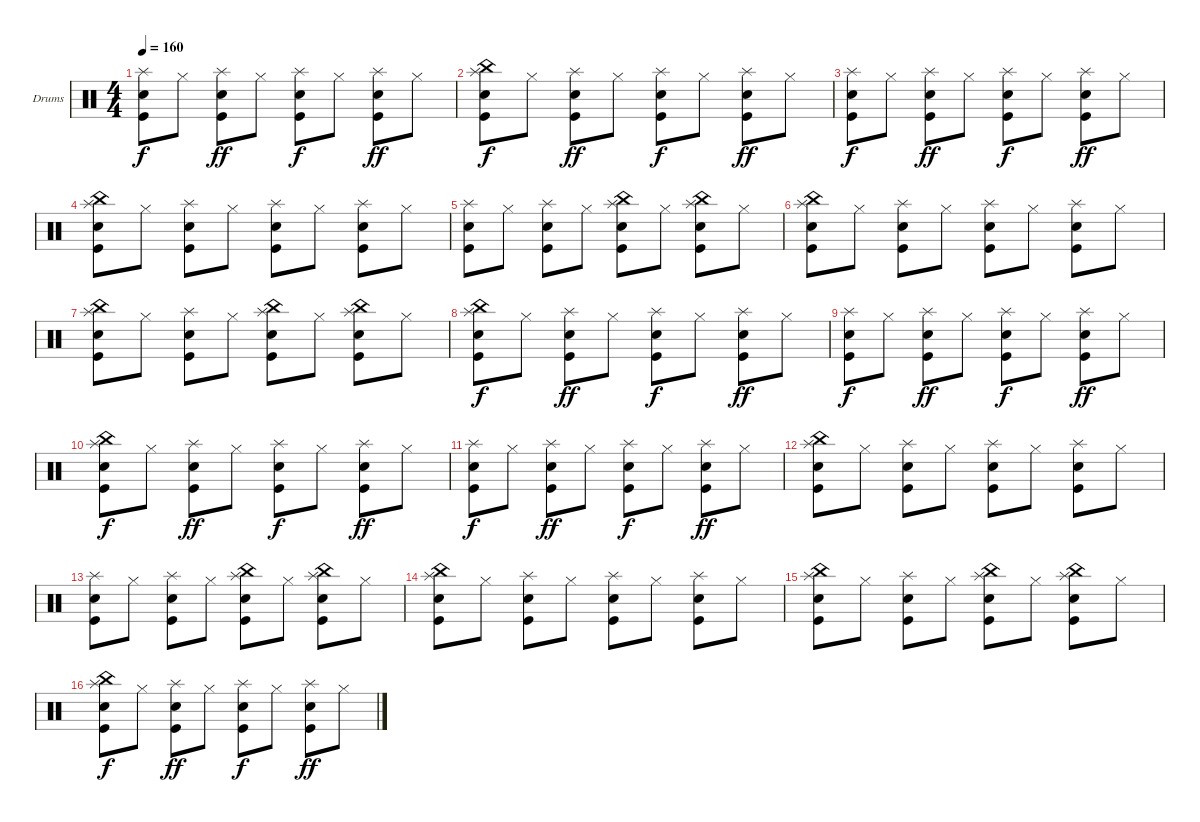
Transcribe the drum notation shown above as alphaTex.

\bracketExtendMode groupsimilarinstruments
\firstSystemTrackNameOrientation horizontal
\otherSystemsTrackNameOrientation horizontal
\track ("Drumkit" "Drums") {instrument percussion}
\staff {score}
\articulation defaults
\ts (4 4)
\tempo 160
\clef neutral
\ks c
("Kick (hit)" "Snare (hit) 2" "Splash (hit)").8{dy f} "Hi-Hat (closed)".8 ("Kick (hit)" "Snare (hit) 2" "Splash (hit)").8{dy ff} "Hi-Hat (closed)".8 ("Kick (hit)" "Snare (hit) 2" "Splash (hit)").8{dy f} "Hi-Hat (closed)".8 ("Kick (hit)" "Snare (hit) 2" "Splash (hit)").8{dy ff} "Hi-Hat (closed)".8 |
("Kick (hit)" "Snare (hit) 2" "Splash (hit)" "China (hit)").8{dy f} "Hi-Hat (closed)".8 ("Kick (hit)" "Snare (hit) 2" "Splash (hit)").8{dy ff} "Hi-Hat (closed)".8 ("Kick (hit)" "Snare (hit) 2" "Splash (hit)").8{dy f} "Hi-Hat (closed)".8 ("Kick (hit)" "Snare (hit) 2" "Splash (hit)").8{dy ff} "Hi-Hat (closed)".8 |
("Kick (hit)" "Snare (hit) 2" "Splash (hit)").8{dy f} "Hi-Hat (closed)".8 ("Kick (hit)" "Snare (hit) 2" "Splash (hit)").8{dy ff} "Hi-Hat (closed)".8 ("Kick (hit)" "Snare (hit) 2" "Splash (hit)").8{dy f} "Hi-Hat (closed)".8 ("Kick (hit)" "Snare (hit) 2" "Splash (hit)").8{dy ff} "Hi-Hat (closed)".8 |
("Kick (hit)" "Snare (hit) 2" "China (hit)" "Splash (hit)").8 "Hi-Hat (closed)".8 ("Kick (hit)" "Snare (hit) 2" "Splash (hit)").8 "Hi-Hat (closed)".8 ("Kick (hit)" "Snare (hit) 2" "Splash (hit)").8 "Hi-Hat (closed)".8 ("Kick (hit)" "Snare (hit) 2" "Splash (hit)").8 "Hi-Hat (closed)".8 |
("Kick (hit)" "Snare (hit) 2" "Splash (hit)").8 "Hi-Hat (closed)".8 ("Kick (hit)" "Snare (hit) 2" "Splash (hit)").8 "Hi-Hat (closed)".8 ("Kick (hit)" "Snare (hit) 2" "Splash (hit)" "China (hit)").8 "Hi-Hat (closed)".8 ("Kick (hit)" "Snare (hit) 2" "Splash (hit)" "China (hit)").8 "Hi-Hat (closed)".8 |
("Kick (hit)" "Snare (hit) 2" "Splash (hit)" "China (hit)").8 "Hi-Hat (closed)".8 ("Kick (hit)" "Snare (hit) 2" "Splash (hit)").8 "Hi-Hat (closed)".8 ("Kick (hit)" "Snare (hit) 2" "Splash (hit)").8 "Hi-Hat (closed)".8 ("Kick (hit)" "Snare (hit) 2" "Splash (hit)").8 "Hi-Hat (closed)".8 |
("Kick (hit)" "Snare (hit) 2" "Splash (hit)" "China (hit)").8 "Hi-Hat (closed)".8 ("Kick (hit)" "Snare (hit) 2" "Splash (hit)").8 "Hi-Hat (closed)".8 ("Kick (hit)" "Snare (hit) 2" "Splash (hit)" "China (hit)").8 "Hi-Hat (closed)".8 ("Kick (hit)" "Snare (hit) 2" "Splash (hit)" "China (hit)").8 "Hi-Hat (closed)".8 |
("Kick (hit)" "Snare (hit) 2" "Splash (hit)" "China (hit)").8{dy f} "Hi-Hat (closed)".8 ("Kick (hit)" "Snare (hit) 2" "Splash (hit)").8{dy ff} "Hi-Hat (closed)".8 ("Kick (hit)" "Snare (hit) 2" "Splash (hit)").8{dy f} "Hi-Hat (closed)".8 ("Kick (hit)" "Snare (hit) 2" "Splash (hit)").8{dy ff} "Hi-Hat (closed)".8 |
("Kick (hit)" "Snare (hit) 2" "Splash (hit)").8{dy f} "Hi-Hat (closed)".8 ("Kick (hit)" "Snare (hit) 2" "Splash (hit)").8{dy ff} "Hi-Hat (closed)".8 ("Kick (hit)" "Snare (hit) 2" "Splash (hit)").8{dy f} "Hi-Hat (closed)".8 ("Kick (hit)" "Snare (hit) 2" "Splash (hit)").8{dy ff} "Hi-Hat (closed)".8 |
("Kick (hit)" "Snare (hit) 2" "Splash (hit)" "China (hit)").8{dy f} "Hi-Hat (closed)".8 ("Kick (hit)" "Snare (hit) 2" "Splash (hit)").8{dy ff} "Hi-Hat (closed)".8 ("Kick (hit)" "Snare (hit) 2" "Splash (hit)").8{dy f} "Hi-Hat (closed)".8 ("Kick (hit)" "Snare (hit) 2" "Splash (hit)").8{dy ff} "Hi-Hat (closed)".8 |
("Kick (hit)" "Snare (hit) 2" "Splash (hit)").8{dy f} "Hi-Hat (closed)".8 ("Kick (hit)" "Snare (hit) 2" "Splash (hit)").8{dy ff} "Hi-Hat (closed)".8 ("Kick (hit)" "Snare (hit) 2" "Splash (hit)").8{dy f} "Hi-Hat (closed)".8 ("Kick (hit)" "Snare (hit) 2" "Splash (hit)").8{dy ff} "Hi-Hat (closed)".8 |
("Kick (hit)" "Snare (hit) 2" "China (hit)" "Splash (hit)").8 "Hi-Hat (closed)".8 ("Kick (hit)" "Snare (hit) 2" "Splash (hit)").8 "Hi-Hat (closed)".8 ("Kick (hit)" "Snare (hit) 2" "Splash (hit)").8 "Hi-Hat (closed)".8 ("Kick (hit)" "Snare (hit) 2" "Splash (hit)").8 "Hi-Hat (closed)".8 |
("Kick (hit)" "Snare (hit) 2" "Splash (hit)").8 "Hi-Hat (closed)".8 ("Kick (hit)" "Snare (hit) 2" "Splash (hit)").8 "Hi-Hat (closed)".8 ("Kick (hit)" "Snare (hit) 2" "Splash (hit)" "China (hit)").8 "Hi-Hat (closed)".8 ("Kick (hit)" "Snare (hit) 2" "Splash (hit)" "China (hit)").8 "Hi-Hat (closed)".8 |
("Kick (hit)" "Snare (hit) 2" "Splash (hit)" "China (hit)").8 "Hi-Hat (closed)".8 ("Kick (hit)" "Snare (hit) 2" "Splash (hit)").8 "Hi-Hat (closed)".8 ("Kick (hit)" "Snare (hit) 2" "Splash (hit)").8 "Hi-Hat (closed)".8 ("Kick (hit)" "Snare (hit) 2" "Splash (hit)").8 "Hi-Hat (closed)".8 |
("Kick (hit)" "Snare (hit) 2" "Splash (hit)" "China (hit)").8 "Hi-Hat (closed)".8 ("Kick (hit)" "Snare (hit) 2" "Splash (hit)").8 "Hi-Hat (closed)".8 ("Kick (hit)" "Snare (hit) 2" "Splash (hit)" "China (hit)").8 "Hi-Hat (closed)".8 ("Kick (hit)" "Snare (hit) 2" "Splash (hit)" "China (hit)").8 "Hi-Hat (closed)".8 |
("Kick (hit)" "Snare (hit) 2" "Splash (hit)" "China (hit)").8{dy f} "Hi-Hat (closed)".8 ("Kick (hit)" "Snare (hit) 2" "Splash (hit)").8{dy ff} "Hi-Hat (closed)".8 ("Kick (hit)" "Snare (hit) 2" "Splash (hit)").8{dy f} "Hi-Hat (closed)".8 ("Kick (hit)" "Snare (hit) 2" "Splash (hit)").8{dy ff} "Hi-Hat (closed)".8
